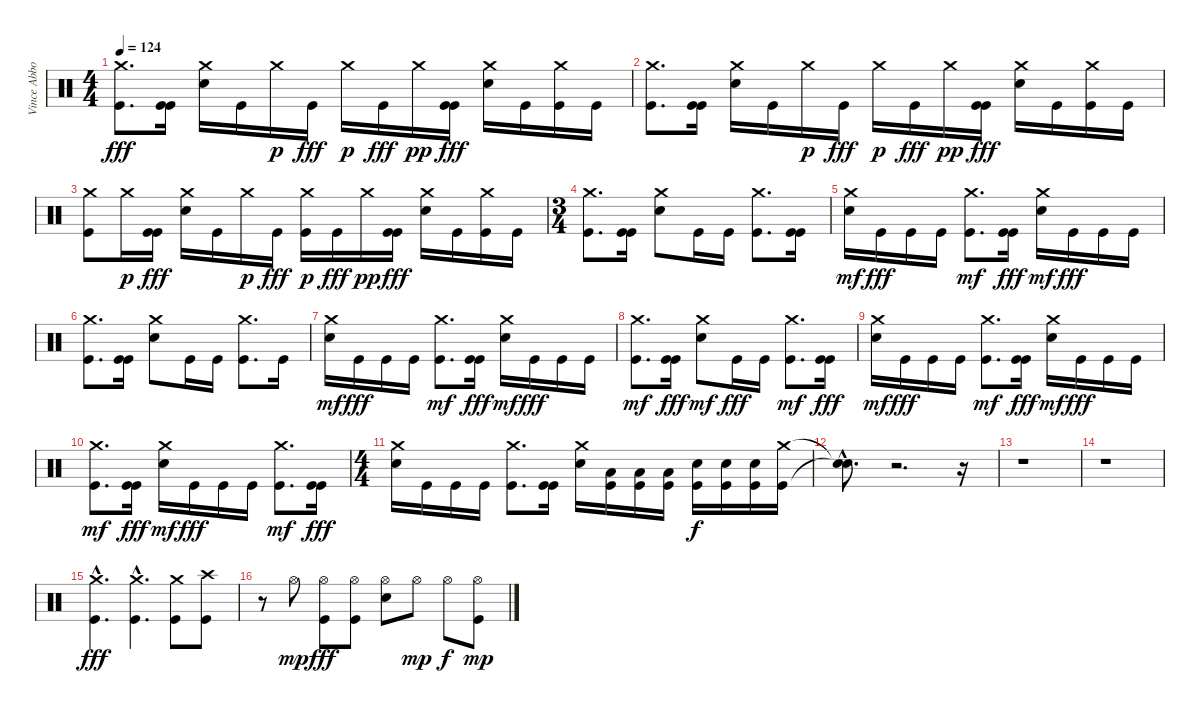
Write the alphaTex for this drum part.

\track ("Vince Abbott (Drums)" "Vince Abbo") {instrument percussion}
\staff {score}
\articulation defaults
\ts (4 4)
\tempo 124
\clef neutral
\ks c
("Crash medium (hit)" "Kick (hit)").8{d dy fff} ("Kick (hit)" "Kick (hit)").16 ("Crash medium (hit)" "Electric Snare (hit)").16 "Kick (hit)".16 "Crash medium (hit)".16{dy p} "Kick (hit)".16{dy fff} "Crash medium (hit)".16{dy p} "Kick (hit)".16{dy fff} "Crash medium (hit)".16{dy pp} ("Kick (hit)" "Kick (hit)").16{dy fff} ("Crash medium (hit)" "Electric Snare (hit)").16 "Kick (hit)".16 ("Crash medium (hit)" "Kick (hit)").16 "Kick (hit)".16 |
("Crash medium (hit)" "Kick (hit)").8{d} ("Kick (hit)" "Kick (hit)").16 ("Crash medium (hit)" "Electric Snare (hit)").16 "Kick (hit)".16 "Crash medium (hit)".16{dy p} "Kick (hit)".16{dy fff} "Crash medium (hit)".16{dy p} "Kick (hit)".16{dy fff} "Crash medium (hit)".16{dy pp} ("Kick (hit)" "Kick (hit)").16{dy fff} ("Crash medium (hit)" "Electric Snare (hit)").16 "Kick (hit)".16 ("Crash medium (hit)" "Kick (hit)").16 "Kick (hit)".16 |
("Crash medium (hit)" "Kick (hit)").8 "Crash medium (hit)".16{dy p} ("Kick (hit)" "Kick (hit)").16{dy fff} ("Crash medium (hit)" "Electric Snare (hit)").16 "Kick (hit)".16 "Crash medium (hit)".16{dy p} "Kick (hit)".16{dy fff} ("Kick (hit)" "Crash medium (hit)").16{dy p} "Kick (hit)".16{dy fff} "Crash medium (hit)".16{dy pp} ("Kick (hit)" "Kick (hit)").16{dy fff} ("Crash medium (hit)" "Electric Snare (hit)").16 "Kick (hit)".16 ("Crash medium (hit)" "Kick (hit)").16 "Kick (hit)".16 |
\ts (3 4)
("Crash medium (hit)" "Kick (hit)").8{d} ("Kick (hit)" "Kick (hit)").16 ("Crash medium (hit)" "Electric Snare (hit)").8 "Kick (hit)".16 "Kick (hit)".16 ("Crash medium (hit)" "Kick (hit)").8{d} ("Kick (hit)" "Kick (hit)").16 |
("Electric Snare (hit)" "Crash medium (hit)").16{dy mf} "Kick (hit)".16{dy fff} "Kick (hit)".16 "Kick (hit)".16 ("Kick (hit)" "Crash medium (hit)").8{d dy mf} ("Kick (hit)" "Kick (hit)").16{dy fff} ("Electric Snare (hit)" "Crash medium (hit)").16{dy mf} "Kick (hit)".16{dy fff} "Kick (hit)".16 "Kick (hit)".16 |
("Crash medium (hit)" "Kick (hit)").8{d} ("Kick (hit)" "Kick (hit)").16 ("Crash medium (hit)" "Electric Snare (hit)").8 "Kick (hit)".16 "Kick (hit)".16 ("Crash medium (hit)" "Kick (hit)").8{d} "Kick (hit)".16 |
("Electric Snare (hit)" "Crash medium (hit)").16{dy mf} "Kick (hit)".16{dy fff} "Kick (hit)".16 "Kick (hit)".16 ("Kick (hit)" "Crash medium (hit)").8{d dy mf} ("Kick (hit)" "Kick (hit)").16{dy fff} ("Electric Snare (hit)" "Crash medium (hit)").16{dy mf} "Kick (hit)".16{dy fff} "Kick (hit)".16 "Kick (hit)".16 |
("Kick (hit)" "Crash medium (hit)").8{d dy mf} ("Kick (hit)" "Kick (hit)").16{dy fff} ("Electric Snare (hit)" "Crash medium (hit)").8{dy mf} "Kick (hit)".16{dy fff} "Kick (hit)".16 ("Kick (hit)" "Crash medium (hit)").8{d dy mf} ("Kick (hit)" "Kick (hit)").16{dy fff} |
("Electric Snare (hit)" "Crash medium (hit)").16{dy mf} "Kick (hit)".16{dy fff} "Kick (hit)".16 "Kick (hit)".16 ("Kick (hit)" "Crash medium (hit)").8{d dy mf} ("Kick (hit)" "Kick (hit)").16{dy fff} ("Electric Snare (hit)" "Crash medium (hit)").16{dy mf} "Kick (hit)".16{dy fff} "Kick (hit)".16 "Kick (hit)".16 |
("Kick (hit)" "Crash medium (hit)").8{d dy mf} ("Kick (hit)" "Kick (hit)").16{dy fff} ("Electric Snare (hit)" "Crash medium (hit)").16{dy mf} "Kick (hit)".16{dy fff} "Kick (hit)".16 "Kick (hit)".16 ("Kick (hit)" "Crash medium (hit)").8{d dy mf} ("Kick (hit)" "Kick (hit)").16{dy fff} |
\ts (4 4)
("Crash medium (hit)" "Electric Snare (hit)").16 "Kick (hit)".16 "Kick (hit)".16 "Kick (hit)".16 ("Crash medium (hit)" "Kick (hit)").8{d} ("Kick (hit)" "Kick (hit)").16 ("Crash medium (hit)" "Electric Snare (hit)").16 ("Low Floor Tom (hit)" "Kick (hit)").16 ("Low Floor Tom (hit)" "Kick (hit)").16 ("Kick (hit)" "Low Floor Tom (hit)").16 ("Kick (hit)" "Electric Snare (hit)").16{dy f} ("Kick (hit)" "Electric Snare (hit)").16 ("Kick (hit)" "Electric Snare (hit)").16 ("Kick (hit)" "Crash medium (hit)").16 |
("Snare (hit)"{hac t} "Snare (hit)"{hac t}).8{d} r.2{d} r.16 |
r.1 |
r.1 |
("Kick (hit)"{hac} "Crash medium (hit)").4{d dy fff} ("Kick (hit)"{hac} "Crash medium (hit)").4{d} ("Kick (hit)" "Crash medium (hit)").8 ("Kick (hit)" "Crash high (hit)").8 |
r.8 "Hi-Hat (open)".8{dy mp} ("Hi-Hat (open)" "Kick (hit)").8{dy fff} ("Hi-Hat (open)" "Kick (hit)").8 ("Hi-Hat (open)" "Electric Snare (hit)").8 "Hi-Hat (open)".8{dy mp} "Hi-Hat (open)".8{dy f} ("Kick (hit)" "Hi-Hat (open)").8{dy mp}
